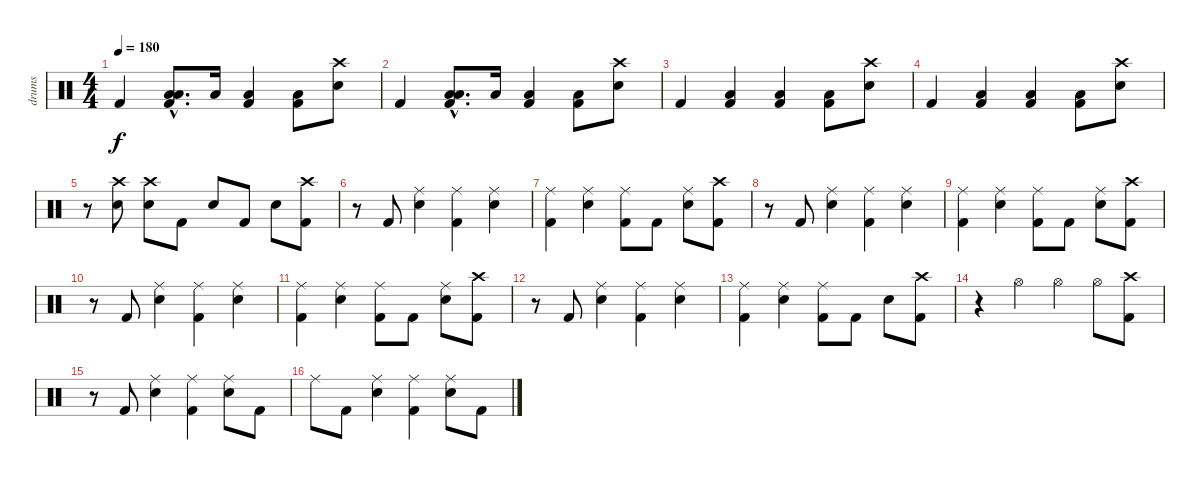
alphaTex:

\track ("drums" "drums") {instrument percussion}
\staff {score}
\articulation defaults
\ts (4 4)
\tempo 180
\clef neutral
\ks c "Kick (hit) 2".4{dy f}
("Low Tom (hit)"{hac} "Low Floor Tom (hit)"{hac} "Kick (hit) 2"{hac}).8{d} "Low Tom (hit)".16 ("Low Floor Tom (hit)" "Kick (hit) 2").4 ("Low Floor Tom (hit)" "Kick (hit) 2").8 ("Crash high (hit)" "Electric Snare (hit)").8 |
"Kick (hit) 2".4 ("Low Tom (hit)"{hac} "Low Floor Tom (hit)"{hac} "Kick (hit) 2"{hac}).8{d} "Low Tom (hit)".16 ("Low Floor Tom (hit)" "Kick (hit) 2").4 ("Low Floor Tom (hit)" "Kick (hit) 2").8 ("Crash high (hit)" "Electric Snare (hit)").8 |
"Kick (hit) 2".4 ("Low Floor Tom (hit)" "Kick (hit) 2").4 ("Low Floor Tom (hit)" "Kick (hit) 2").4 ("Low Floor Tom (hit)" "Kick (hit) 2").8 ("Crash high (hit)" "Electric Snare (hit)").8 |
"Kick (hit) 2".4 ("Low Floor Tom (hit)" "Kick (hit) 2").4 ("Low Floor Tom (hit)" "Kick (hit) 2").4 ("Low Floor Tom (hit)" "Kick (hit) 2").8 ("Crash high (hit)" "Electric Snare (hit)").8 |
r.8 ("Crash high (hit)" "Electric Snare (hit)").8 ("Crash high (hit)" "Electric Snare (hit)").8 "Kick (hit) 2".8 "Electric Snare (hit)".8 "Kick (hit) 2".8 "Electric Snare (hit)".8 ("Crash high (hit)" "Kick (hit) 2").8 |
r.8 "Kick (hit) 2".8 ("Ride (middle)" "Electric Snare (hit)").4 ("Ride (middle)" "Kick (hit) 2").4 ("Ride (middle)" "Electric Snare (hit)").4 |
("Ride (middle)" "Kick (hit) 2").4 ("Ride (middle)" "Electric Snare (hit)").4 ("Ride (middle)" "Kick (hit) 2").8 "Kick (hit) 2".8 ("Ride (middle)" "Electric Snare (hit)").8 ("Crash high (hit)" "Kick (hit) 2").8 |
r.8 "Kick (hit) 2".8 ("Ride (middle)" "Electric Snare (hit)").4 ("Ride (middle)" "Kick (hit) 2").4 ("Ride (middle)" "Electric Snare (hit)").4 |
("Ride (middle)" "Kick (hit) 2").4 ("Ride (middle)" "Electric Snare (hit)").4 ("Ride (middle)" "Kick (hit) 2").8 "Kick (hit) 2".8 ("Ride (middle)" "Electric Snare (hit)").8 ("Crash high (hit)" "Kick (hit) 2").8 |
r.8 "Kick (hit) 2".8 ("Ride (middle)" "Electric Snare (hit)").4 ("Ride (middle)" "Kick (hit) 2").4 ("Ride (middle)" "Electric Snare (hit)").4 |
("Ride (middle)" "Kick (hit) 2").4 ("Ride (middle)" "Electric Snare (hit)").4 ("Ride (middle)" "Kick (hit) 2").8 "Kick (hit) 2".8 ("Ride (middle)" "Electric Snare (hit)").8 ("Crash high (hit)" "Kick (hit) 2").8 |
r.8 "Kick (hit) 2".8 ("Ride (middle)" "Electric Snare (hit)").4 ("Ride (middle)" "Kick (hit) 2").4 ("Ride (middle)" "Electric Snare (hit)").4 |
("Ride (middle)" "Kick (hit) 2").4 ("Ride (middle)" "Electric Snare (hit)").4 ("Ride (middle)" "Kick (hit) 2").8 "Kick (hit) 2".8 "Electric Snare (hit)".8 ("Crash high (hit)" "Kick (hit) 2").8 |
r.4 "Hi-Hat (open)".4 "Hi-Hat (open)".4 "Hi-Hat (open)".8 ("Crash high (hit)" "Kick (hit) 2").8 |
r.8 "Kick (hit) 2".8 ("Ride (middle)" "Electric Snare (hit)").4 ("Ride (middle)" "Kick (hit) 2").4 ("Ride (middle)" "Electric Snare (hit)").8 "Kick (hit) 2".8 |
"Ride (middle)".8 "Kick (hit) 2".8 ("Ride (middle)" "Electric Snare (hit)").4 ("Ride (middle)" "Kick (hit) 2").4 ("Ride (middle)" "Electric Snare (hit)").8 "Kick (hit) 2".8
